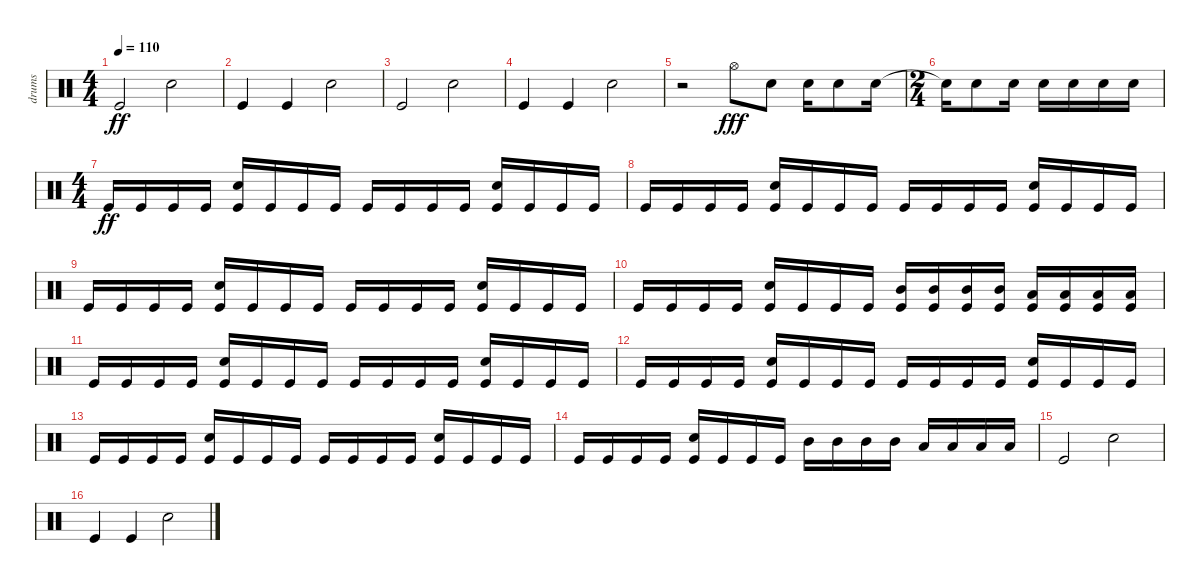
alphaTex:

\track ("drums" "drums") {instrument percussion}
\staff {score}
\articulation defaults
\ts (4 4)
\tempo 110
\clef neutral
\ks c "Kick (hit)".2{dy ff} "Electric Snare (hit)".2
|
"Kick (hit)".4 "Kick (hit)".4 "Electric Snare (hit)".2 |
"Kick (hit)".2 "Electric Snare (hit)".2 |
"Kick (hit)".4 "Kick (hit)".4 "Electric Snare (hit)".2 |
r.2 "Hi-Hat (open)".8{dy fff} "Electric Snare (hit)".8 "Electric Snare (hit)".16 "Electric Snare (hit)".8 "Electric Snare (hit)".16 |
\ts (2 4)
"Electric Snare (hit)"{t}.16 "Electric Snare (hit)".8 "Electric Snare (hit)".16 "Electric Snare (hit)".16 "Electric Snare (hit)".16 "Electric Snare (hit)".16 "Electric Snare (hit)".16 |
\ts (4 4)
"Kick (hit)".16{dy ff} "Kick (hit)".16 "Kick (hit)".16 "Kick (hit)".16 ("Electric Snare (hit)" "Kick (hit)").16 "Kick (hit)".16 "Kick (hit)".16 "Kick (hit)".16 "Kick (hit)".16 "Kick (hit)".16 "Kick (hit)".16 "Kick (hit)".16 ("Electric Snare (hit)" "Kick (hit)").16 "Kick (hit)".16 "Kick (hit)".16 "Kick (hit)".16 |
"Kick (hit)".16 "Kick (hit)".16 "Kick (hit)".16 "Kick (hit)".16 ("Electric Snare (hit)" "Kick (hit)").16 "Kick (hit)".16 "Kick (hit)".16 "Kick (hit)".16 "Kick (hit)".16 "Kick (hit)".16 "Kick (hit)".16 "Kick (hit)".16 ("Electric Snare (hit)" "Kick (hit)").16 "Kick (hit)".16 "Kick (hit)".16 "Kick (hit)".16 |
"Kick (hit)".16 "Kick (hit)".16 "Kick (hit)".16 "Kick (hit)".16 ("Electric Snare (hit)" "Kick (hit)").16 "Kick (hit)".16 "Kick (hit)".16 "Kick (hit)".16 "Kick (hit)".16 "Kick (hit)".16 "Kick (hit)".16 "Kick (hit)".16 ("Electric Snare (hit)" "Kick (hit)").16 "Kick (hit)".16 "Kick (hit)".16 "Kick (hit)".16 |
"Kick (hit)".16 "Kick (hit)".16 "Kick (hit)".16 "Kick (hit)".16 ("Electric Snare (hit)" "Kick (hit)").16 "Kick (hit)".16 "Kick (hit)".16 "Kick (hit)".16 ("Mid Tom (hit)" "Kick (hit)").16 ("Mid Tom (hit)" "Kick (hit)").16 ("Mid Tom (hit)" "Kick (hit)").16 ("Mid Tom (hit)" "Kick (hit)").16 ("Low Tom (hit)" "Kick (hit)").16 ("Low Tom (hit)" "Kick (hit)").16 ("Low Tom (hit)" "Kick (hit)").16 ("Low Tom (hit)" "Kick (hit)").16 |
"Kick (hit)".16 "Kick (hit)".16 "Kick (hit)".16 "Kick (hit)".16 ("Electric Snare (hit)" "Kick (hit)").16 "Kick (hit)".16 "Kick (hit)".16 "Kick (hit)".16 "Kick (hit)".16 "Kick (hit)".16 "Kick (hit)".16 "Kick (hit)".16 ("Electric Snare (hit)" "Kick (hit)").16 "Kick (hit)".16 "Kick (hit)".16 "Kick (hit)".16 |
"Kick (hit)".16 "Kick (hit)".16 "Kick (hit)".16 "Kick (hit)".16 ("Electric Snare (hit)" "Kick (hit)").16 "Kick (hit)".16 "Kick (hit)".16 "Kick (hit)".16 "Kick (hit)".16 "Kick (hit)".16 "Kick (hit)".16 "Kick (hit)".16 ("Electric Snare (hit)" "Kick (hit)").16 "Kick (hit)".16 "Kick (hit)".16 "Kick (hit)".16 |
"Kick (hit)".16 "Kick (hit)".16 "Kick (hit)".16 "Kick (hit)".16 ("Electric Snare (hit)" "Kick (hit)").16 "Kick (hit)".16 "Kick (hit)".16 "Kick (hit)".16 "Kick (hit)".16 "Kick (hit)".16 "Kick (hit)".16 "Kick (hit)".16 ("Electric Snare (hit)" "Kick (hit)").16 "Kick (hit)".16 "Kick (hit)".16 "Kick (hit)".16 |
"Kick (hit)".16 "Kick (hit)".16 "Kick (hit)".16 "Kick (hit)".16 ("Electric Snare (hit)" "Kick (hit)").16 "Kick (hit)".16 "Kick (hit)".16 "Kick (hit)".16 "Mid Tom (hit)".16 "Mid Tom (hit)".16 "Mid Tom (hit)".16 "Mid Tom (hit)".16 "Low Tom (hit)".16 "Low Tom (hit)".16 "Low Tom (hit)".16 "Low Tom (hit)".16 |
"Kick (hit)".2 "Electric Snare (hit)".2 |
"Kick (hit)".4 "Kick (hit)".4 "Electric Snare (hit)".2
